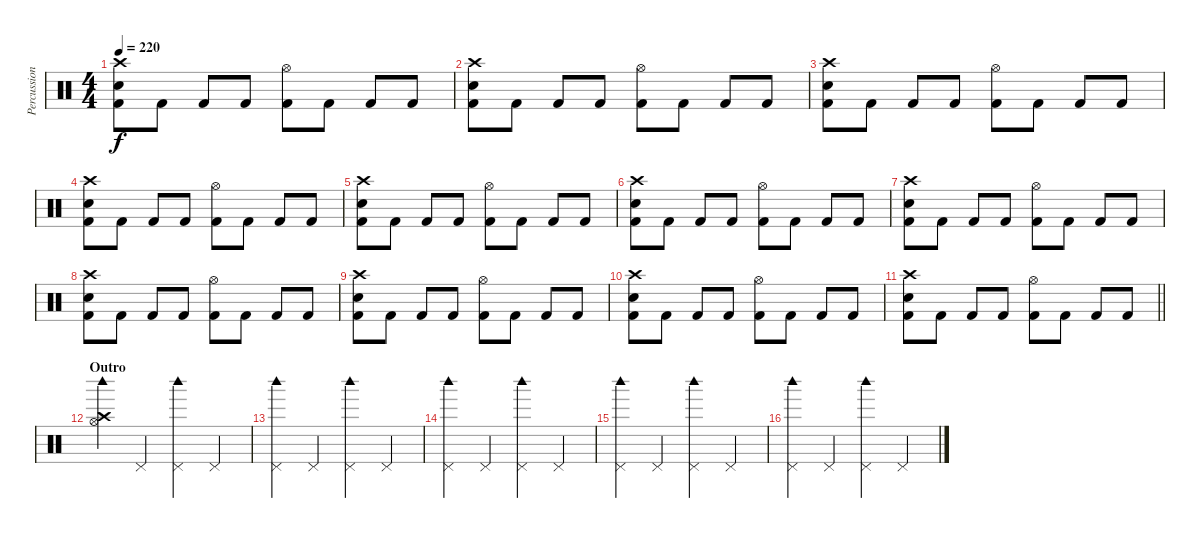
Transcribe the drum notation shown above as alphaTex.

\track ("Percussion" "Percussion") {instrument percussion}
\staff {score}
\articulation defaults
\ts (4 4)
\tempo 220
\clef neutral
\ks c
("Crash high (hit)" "Snare (hit) 2" "Kick (hit) 2").8{dy f} "Kick (hit) 2".8 "Kick (hit) 2".8 "Kick (hit) 2".8 ("Hi-Hat (open)" "Kick (hit) 2").8 "Kick (hit) 2".8 "Kick (hit) 2".8 "Kick (hit) 2".8 |
("Crash high (hit)" "Snare (hit) 2" "Kick (hit) 2").8 "Kick (hit) 2".8 "Kick (hit) 2".8 "Kick (hit) 2".8 ("Hi-Hat (open)" "Kick (hit) 2").8 "Kick (hit) 2".8 "Kick (hit) 2".8 "Kick (hit) 2".8 |
("Crash high (hit)" "Snare (hit) 2" "Kick (hit) 2").8 "Kick (hit) 2".8 "Kick (hit) 2".8 "Kick (hit) 2".8 ("Hi-Hat (open)" "Kick (hit) 2").8 "Kick (hit) 2".8 "Kick (hit) 2".8 "Kick (hit) 2".8 |
("Crash high (hit)" "Snare (hit) 2" "Kick (hit) 2").8 "Kick (hit) 2".8 "Kick (hit) 2".8 "Kick (hit) 2".8 ("Hi-Hat (open)" "Kick (hit) 2").8 "Kick (hit) 2".8 "Kick (hit) 2".8 "Kick (hit) 2".8 |
("Crash high (hit)" "Snare (hit) 2" "Kick (hit) 2").8 "Kick (hit) 2".8 "Kick (hit) 2".8 "Kick (hit) 2".8 ("Hi-Hat (open)" "Kick (hit) 2").8 "Kick (hit) 2".8 "Kick (hit) 2".8 "Kick (hit) 2".8 |
("Crash high (hit)" "Snare (hit) 2" "Kick (hit) 2").8 "Kick (hit) 2".8 "Kick (hit) 2".8 "Kick (hit) 2".8 ("Hi-Hat (open)" "Kick (hit) 2").8 "Kick (hit) 2".8 "Kick (hit) 2".8 "Kick (hit) 2".8 |
("Crash high (hit)" "Snare (hit) 2" "Kick (hit) 2").8 "Kick (hit) 2".8 "Kick (hit) 2".8 "Kick (hit) 2".8 ("Hi-Hat (open)" "Kick (hit) 2").8 "Kick (hit) 2".8 "Kick (hit) 2".8 "Kick (hit) 2".8 |
("Crash high (hit)" "Snare (hit) 2" "Kick (hit) 2").8 "Kick (hit) 2".8 "Kick (hit) 2".8 "Kick (hit) 2".8 ("Hi-Hat (open)" "Kick (hit) 2").8 "Kick (hit) 2".8 "Kick (hit) 2".8 "Kick (hit) 2".8 |
("Crash high (hit)" "Snare (hit) 2" "Kick (hit) 2").8 "Kick (hit) 2".8 "Kick (hit) 2".8 "Kick (hit) 2".8 ("Hi-Hat (open)" "Kick (hit) 2").8 "Kick (hit) 2".8 "Kick (hit) 2".8 "Kick (hit) 2".8 |
("Crash high (hit)" "Snare (hit) 2" "Kick (hit) 2").8 "Kick (hit) 2".8 "Kick (hit) 2".8 "Kick (hit) 2".8 ("Hi-Hat (open)" "Kick (hit) 2").8 "Kick (hit) 2".8 "Kick (hit) 2".8 "Kick (hit) 2".8 |
\barLineRight lightlight
("Crash high (hit)" "Snare (hit) 2" "Kick (hit) 2").8 "Kick (hit) 2".8 "Kick (hit) 2".8 "Kick (hit) 2".8 ("Hi-Hat (open)" "Kick (hit) 2").8 "Kick (hit) 2".8 "Kick (hit) 2".8 "Kick (hit) 2".8 |
\section ("" "Outro")
("Crash high (hit)" "Hi-Hat (open)" "Woodblock high (hit)").4 "Pedal Hi-Hat (hit)".4 ("Pedal Hi-Hat (hit)" "Woodblock high (hit)").4 "Pedal Hi-Hat (hit)".4 |
("Pedal Hi-Hat (hit)" "Woodblock high (hit)").4 "Pedal Hi-Hat (hit)".4 ("Pedal Hi-Hat (hit)" "Woodblock high (hit)").4 "Pedal Hi-Hat (hit)".4 |
("Pedal Hi-Hat (hit)" "Woodblock high (hit)").4 "Pedal Hi-Hat (hit)".4 ("Pedal Hi-Hat (hit)" "Woodblock high (hit)").4 "Pedal Hi-Hat (hit)".4 |
("Pedal Hi-Hat (hit)" "Woodblock high (hit)").4 "Pedal Hi-Hat (hit)".4 ("Pedal Hi-Hat (hit)" "Woodblock high (hit)").4 "Pedal Hi-Hat (hit)".4 |
("Pedal Hi-Hat (hit)" "Woodblock high (hit)").4 "Pedal Hi-Hat (hit)".4 ("Pedal Hi-Hat (hit)" "Woodblock high (hit)").4 "Pedal Hi-Hat (hit)".4
